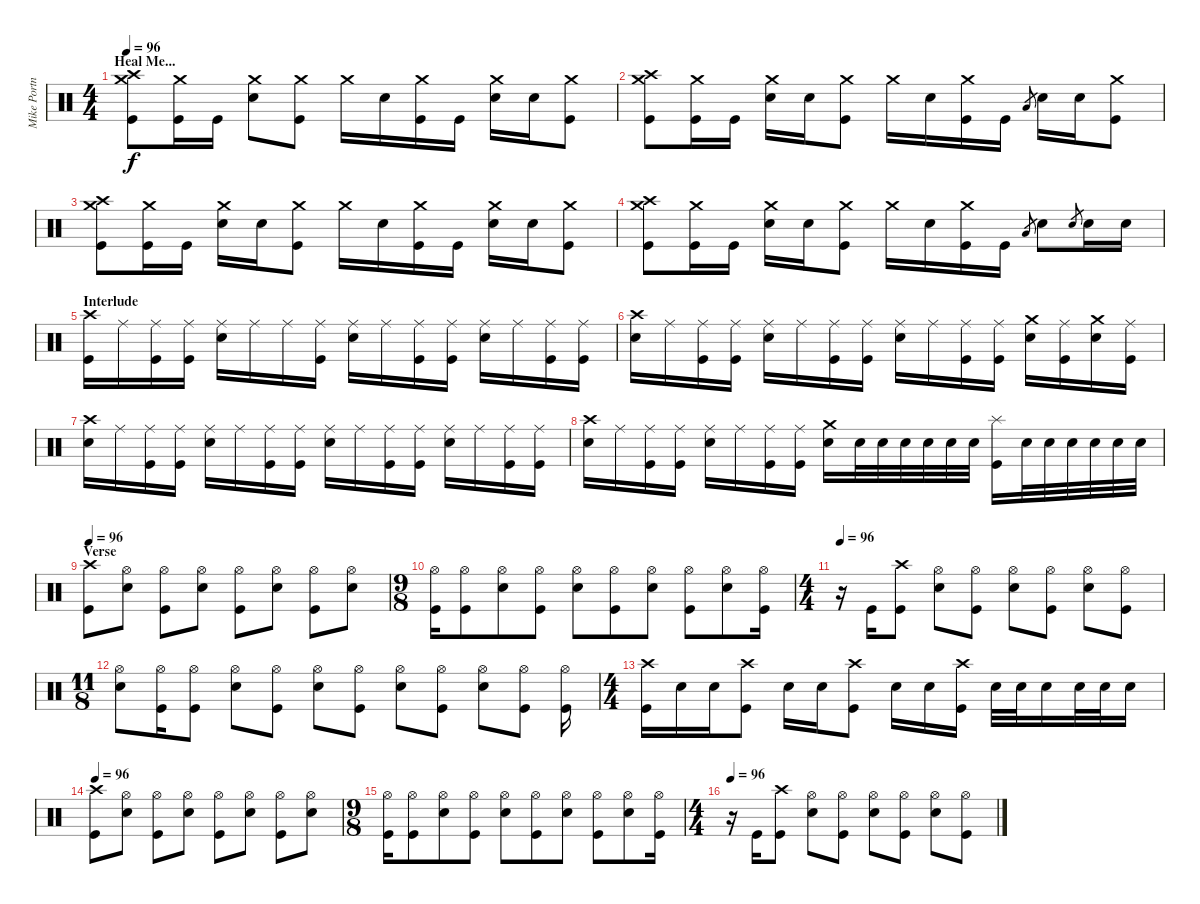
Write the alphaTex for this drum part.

\track ("Mike Portnoy" "Mike Portn") {instrument percussion}
\staff {score}
\articulation defaults
\ts (4 4)
\section ("" "Heal Me...")
\tempo 96
\clef neutral
\ks c
("Crash high (hit)" "Crash medium (hit)" "Kick (hit)").8{dy f} ("Crash medium (hit)" "Kick (hit)").16 "Kick (hit)".16 ("Crash medium (hit)" "Electric Snare (hit)").8 ("Crash medium (hit)" "Kick (hit)").8 "Crash medium (hit)".16 "Electric Snare (hit)".16 ("Crash medium (hit)" "Kick (hit)").16 "Kick (hit)".16 ("Crash medium (hit)" "Electric Snare (hit)").16 "Electric Snare (hit)".16 ("Crash medium (hit)" "Kick (hit)").8 |
("Crash high (hit)" "Crash medium (hit)" "Kick (hit)").8 ("Crash medium (hit)" "Kick (hit)").16 "Kick (hit)".16 ("Crash medium (hit)" "Electric Snare (hit)").16 "Electric Snare (hit)".16 ("Crash medium (hit)" "Kick (hit)").8 "Crash medium (hit)".16 "Electric Snare (hit)".16 ("Crash medium (hit)" "Kick (hit)").16 "Kick (hit)".16 "Low Tom (hit)".8{gr} "Electric Snare (hit)".16 "Electric Snare (hit)".16 ("Crash medium (hit)" "Kick (hit)").8 |
("Crash high (hit)" "Crash medium (hit)" "Kick (hit)").8 ("Crash medium (hit)" "Kick (hit)").16 "Kick (hit)".16 ("Crash medium (hit)" "Electric Snare (hit)").16 "Electric Snare (hit)".16 ("Crash medium (hit)" "Kick (hit)").8 "Crash medium (hit)".16 "Electric Snare (hit)".16 ("Crash medium (hit)" "Kick (hit)").16 "Kick (hit)".16 ("Crash medium (hit)" "Electric Snare (hit)").16 "Electric Snare (hit)".16 ("Crash medium (hit)" "Kick (hit)").8 |
("Crash high (hit)" "Crash medium (hit)" "Kick (hit)").8 ("Crash medium (hit)" "Kick (hit)").16 "Kick (hit)".16 ("Crash medium (hit)" "Electric Snare (hit)").16 "Electric Snare (hit)".16 ("Crash medium (hit)" "Kick (hit)").8 "Crash medium (hit)".16 "Electric Snare (hit)".16 ("Crash medium (hit)" "Kick (hit)").16 "Kick (hit)".16 "Low Tom (hit)".8{gr} "Electric Snare (hit)".8 "Electric Snare (hit)".8{gr} "Electric Snare (hit)".16 "Electric Snare (hit)".16 |
\section ("" "Interlude")
("Crash high (hit)" "Kick (hit)").16 "Ride (middle)".16 ("Ride (middle)" "Kick (hit)").16 ("Ride (middle)" "Kick (hit)").16 ("Ride (middle)" "Electric Snare (hit)").16 "Ride (middle)".16 "Ride (middle)".16 ("Ride (middle)" "Kick (hit)").16 ("Ride (middle)" "Electric Snare (hit)").16 "Ride (middle)".16 ("Ride (middle)" "Kick (hit)").16 ("Ride (middle)" "Kick (hit)").16 ("Ride (middle)" "Electric Snare (hit)").16 "Ride (middle)".16 ("Ride (middle)" "Kick (hit)").16 ("Ride (middle)" "Kick (hit)").16 |
("Crash high (hit)" "Electric Snare (hit)").16 "Ride (middle)".16 ("Ride (middle)" "Kick (hit)").16 ("Ride (middle)" "Kick (hit)").16 ("Ride (middle)" "Electric Snare (hit)").16 "Ride (middle)".16 ("Ride (middle)" "Kick (hit)").16 ("Ride (middle)" "Kick (hit)").16 ("Ride (middle)" "Electric Snare (hit)").16 "Ride (middle)".16 ("Ride (middle)" "Kick (hit)").16 ("Ride (middle)" "Kick (hit)").16 ("Crash medium (hit)" "Electric Snare (hit)").16 ("Ride (middle)" "Kick (hit)").16 ("Crash medium (hit)" "Electric Snare (hit)").16 ("Ride (middle)" "Kick (hit)").16 |
("Crash high (hit)" "Electric Snare (hit)").16 "Ride (middle)".16 ("Ride (middle)" "Kick (hit)").16 ("Ride (middle)" "Kick (hit)").16 ("Ride (middle)" "Electric Snare (hit)").16 "Ride (middle)".16 ("Ride (middle)" "Kick (hit)").16 ("Ride (middle)" "Kick (hit)").16 ("Ride (middle)" "Electric Snare (hit)").16 "Ride (middle)".16 ("Ride (middle)" "Kick (hit)").16 ("Ride (middle)" "Kick (hit)").16 ("Ride (middle)" "Electric Snare (hit)").16 "Ride (middle)".16 ("Ride (middle)" "Kick (hit)").16 ("Ride (middle)" "Kick (hit)").16 |
("Crash high (hit)" "Electric Snare (hit)").16 "Ride (middle)".16 ("Ride (middle)" "Kick (hit)").16 ("Ride (middle)" "Kick (hit)").16 ("Ride (middle)" "Electric Snare (hit)").16 "Ride (middle)".16 ("Ride (middle)" "Kick (hit)").16 ("Ride (middle)" "Kick (hit)").16 ("Crash medium (hit)" "Electric Snare (hit)").16 "Electric Snare (hit)".32 "Electric Snare (hit)".32 "Electric Snare (hit)".32 "Electric Snare (hit)".32 "Electric Snare (hit)".32 "Electric Snare (hit)".32 ("Splash (hit)" "Kick (hit)").16 "Electric Snare (hit)".32 "Electric Snare (hit)".32 "Electric Snare (hit)".32 "Electric Snare (hit)".32 "Electric Snare (hit)".32 "Electric Snare (hit)".32 |
\section ("" "Verse")
\tempo 96
("Crash high (hit)" "Kick (hit)").8 ("Hi-Hat (open)" "Electric Snare (hit)").8 ("Hi-Hat (open)" "Kick (hit)").8 ("Hi-Hat (open)" "Electric Snare (hit)").8 ("Hi-Hat (open)" "Kick (hit)").8 ("Hi-Hat (open)" "Electric Snare (hit)").8 ("Hi-Hat (open)" "Kick (hit)").8 ("Hi-Hat (open)" "Electric Snare (hit)").8 |
\ts (9 8)
("Hi-Hat (open)" "Kick (hit)").16 ("Hi-Hat (open)" "Kick (hit)").8 ("Hi-Hat (open)" "Electric Snare (hit)").8 ("Hi-Hat (open)" "Kick (hit)").8 ("Hi-Hat (open)" "Electric Snare (hit)").8 ("Hi-Hat (open)" "Kick (hit)").8 ("Hi-Hat (open)" "Electric Snare (hit)").8 ("Hi-Hat (open)" "Kick (hit)").8 ("Hi-Hat (open)" "Electric Snare (hit)").8 ("Hi-Hat (open)" "Kick (hit)").16 |
\ts (4 4)
\tempo 96
r.16 "Kick (hit)".16 ("Crash high (hit)" "Kick (hit)").8 ("Hi-Hat (open)" "Electric Snare (hit)").8 ("Hi-Hat (open)" "Kick (hit)").8 ("Hi-Hat (open)" "Electric Snare (hit)").8 ("Hi-Hat (open)" "Kick (hit)").8 ("Hi-Hat (open)" "Electric Snare (hit)").8 ("Hi-Hat (open)" "Kick (hit)").8 |
\ts (11 8)
("Hi-Hat (open)" "Electric Snare (hit)").8 ("Hi-Hat (open)" "Kick (hit)").16 ("Hi-Hat (open)" "Kick (hit)").8 ("Hi-Hat (open)" "Electric Snare (hit)").8 ("Hi-Hat (open)" "Kick (hit)").8 ("Hi-Hat (open)" "Electric Snare (hit)").8 ("Hi-Hat (open)" "Kick (hit)").8 ("Hi-Hat (open)" "Electric Snare (hit)").8 ("Hi-Hat (open)" "Kick (hit)").8 ("Hi-Hat (open)" "Electric Snare (hit)").8 ("Hi-Hat (open)" "Kick (hit)").8 ("Hi-Hat (open)" "Kick (hit)").16 |
\ts (4 4)
("Crash high (hit)" "Kick (hit)").16 "Electric Snare (hit)".16 "Electric Snare (hit)".16 ("Crash high (hit)" "Kick (hit)").8 "Electric Snare (hit)".16 "Electric Snare (hit)".16 ("Crash high (hit)" "Kick (hit)").8 "Electric Snare (hit)".16 "Electric Snare (hit)".16 ("Crash high (hit)" "Kick (hit)").16 "Electric Snare (hit)".32 "Electric Snare (hit)".32 "Electric Snare (hit)".16 "Electric Snare (hit)".32 "Electric Snare (hit)".32 "Electric Snare (hit)".16 |
\tempo 96
("Crash high (hit)" "Kick (hit)").8 ("Hi-Hat (open)" "Electric Snare (hit)").8 ("Hi-Hat (open)" "Kick (hit)").8 ("Hi-Hat (open)" "Electric Snare (hit)").8 ("Hi-Hat (open)" "Kick (hit)").8 ("Hi-Hat (open)" "Electric Snare (hit)").8 ("Hi-Hat (open)" "Kick (hit)").8 ("Hi-Hat (open)" "Electric Snare (hit)").8 |
\ts (9 8)
("Hi-Hat (open)" "Kick (hit)").16 ("Hi-Hat (open)" "Kick (hit)").8 ("Hi-Hat (open)" "Electric Snare (hit)").8 ("Hi-Hat (open)" "Kick (hit)").8 ("Hi-Hat (open)" "Electric Snare (hit)").8 ("Hi-Hat (open)" "Kick (hit)").8 ("Hi-Hat (open)" "Electric Snare (hit)").8 ("Hi-Hat (open)" "Kick (hit)").8 ("Hi-Hat (open)" "Electric Snare (hit)").8 ("Hi-Hat (open)" "Kick (hit)").16 |
\ts (4 4)
\tempo 96
r.16 "Kick (hit)".16 ("Crash high (hit)" "Kick (hit)").8 ("Hi-Hat (open)" "Electric Snare (hit)").8 ("Hi-Hat (open)" "Kick (hit)").8 ("Hi-Hat (open)" "Electric Snare (hit)").8 ("Hi-Hat (open)" "Kick (hit)").8 ("Hi-Hat (open)" "Electric Snare (hit)").8 ("Hi-Hat (open)" "Kick (hit)").8
